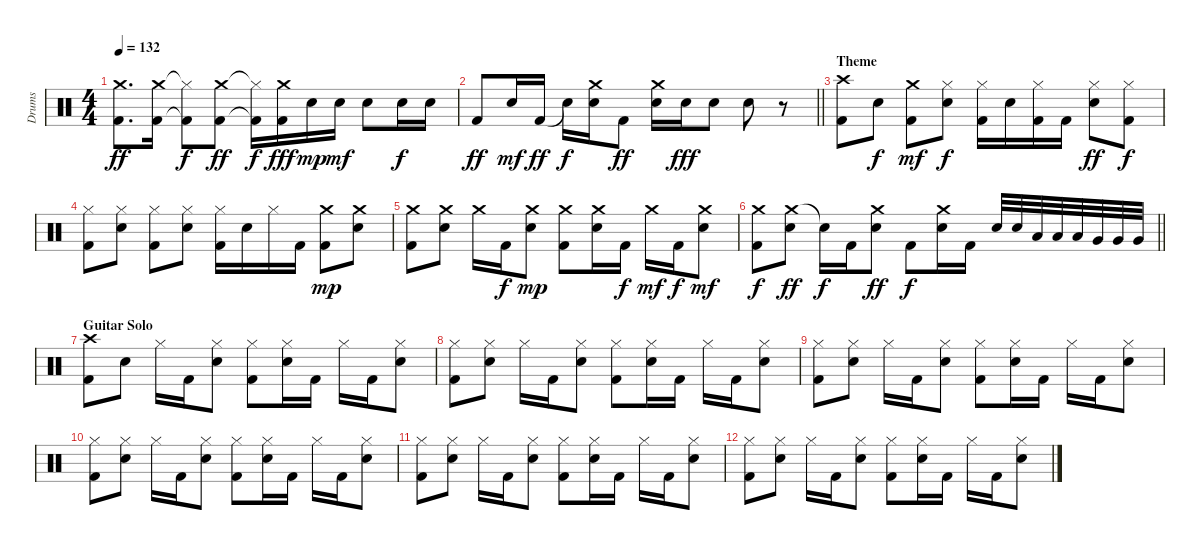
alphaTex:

\track ("Drums" "Drums") {instrument percussion}
\staff {score}
\articulation defaults
\ts (4 4)
\tempo 132
\clef neutral
\ks c
("Crash medium (hit)" "Kick (hit) 2").8{d dy ff} ("Crash medium (hit)" "Kick (hit) 2").16 ("Hi-Hat (closed)"{t} "Kick (hit) 2"{t}).8{dy f} ("Crash medium (hit)" "Kick (hit) 2").8{dy ff} ("Hi-Hat (closed)"{t} "Kick (hit) 2"{t}).16{dy f} ("Crash medium (hit)" "Kick (hit) 2").16{dy fff} "Electric Snare (hit)".16{dy mp} "Electric Snare (hit)".16{dy mf} "Electric Snare (hit)".8 "Electric Snare (hit)".16{dy f} "Electric Snare (hit)".16 |
\barLineRight lightlight "Kick (hit) 2".8{dy ff} "Electric Snare (hit)".16{dy mf} "Kick (hit) 2".16{dy ff} "Snare (hit)"{t}.16{dy f}
("Crash medium (hit)" "Electric Snare (hit)").16 "Kick (hit) 2".8{dy ff} ("Crash medium (hit)" "Electric Snare (hit)").16 "Electric Snare (hit)".16{dy fff} "Electric Snare (hit)".8 "Electric Snare (hit)".8 r.8 |
\section ("" "Theme")
("Crash high (hit)" "Kick (hit) 2").8 "Electric Snare (hit)".8{dy f} ("Crash medium (hit)" "Kick (hit) 2").8{dy mf} ("Hi-Hat (closed)" "Electric Snare (hit)").8{dy f} ("Hi-Hat (closed)" "Kick (hit) 2").16 "Electric Snare (hit)".16 ("Hi-Hat (closed)" "Kick (hit) 2").16 "Kick (hit) 2".16 ("Hi-Hat (closed)" "Electric Snare (hit)").8{dy ff} ("Hi-Hat (closed)" "Kick (hit) 2").8{dy f} |
("Hi-Hat (closed)" "Kick (hit) 2").8 ("Hi-Hat (closed)" "Electric Snare (hit)").8 ("Hi-Hat (closed)" "Kick (hit) 2").8 ("Hi-Hat (closed)" "Electric Snare (hit)").8 ("Hi-Hat (closed)" "Kick (hit) 2").16 "Electric Snare (hit)".16 "Hi-Hat (closed)".16 "Kick (hit) 2".16 ("Crash medium (hit)" "Kick (hit) 2").8{dy mp} ("Crash medium (hit)" "Electric Snare (hit)").8 |
("Crash medium (hit)" "Kick (hit) 2").8 ("Crash medium (hit)" "Electric Snare (hit)").8 "Crash medium (hit)".16 "Kick (hit) 2".16{dy f} ("Crash medium (hit)" "Electric Snare (hit)").8{dy mp} ("Crash medium (hit)" "Kick (hit) 2").8 ("Crash medium (hit)" "Electric Snare (hit)").16 "Kick (hit) 2".16{dy f} "Crash medium (hit)".16{dy mf} "Kick (hit) 2".16{dy f} ("Crash medium (hit)" "Electric Snare (hit)").8{dy mf} |
\barLineRight lightlight
("Crash medium (hit)" "Kick (hit) 2").8{dy f} ("Crash medium (hit)" "Electric Snare (hit)").8{dy ff} "Snare (hit)"{t}.16{dy f} "Kick (hit) 2".16 ("Crash medium (hit)" "Electric Snare (hit)").8{dy ff} "Kick (hit) 2".8{dy f} ("Crash medium (hit)" "Electric Snare (hit)").16 "Kick (hit) 2".16 "Electric Snare (hit)".32 "Electric Snare (hit)".32 "Low Tom (hit)".32 "Low Tom (hit)".32 "Low Tom (hit)".32 "Very Low Tom (hit)".32 "Very Low Tom (hit)".32 "Very Low Tom (hit)".32 |
\section ("" "Guitar Solo")
("Crash high (hit)" "Kick (hit) 2").8 "Electric Snare (hit)".8 "Hi-Hat (closed)".16 "Kick (hit) 2".16 ("Hi-Hat (closed)" "Electric Snare (hit)").8 ("Hi-Hat (closed)" "Kick (hit) 2").8 ("Hi-Hat (closed)" "Electric Snare (hit)").16 "Kick (hit) 2".16 "Hi-Hat (closed)".16 "Kick (hit) 2".16 ("Hi-Hat (closed)" "Electric Snare (hit)").8 |
("Hi-Hat (closed)" "Kick (hit) 2").8 ("Hi-Hat (closed)" "Electric Snare (hit)").8 "Hi-Hat (closed)".16 "Kick (hit) 2".16 ("Hi-Hat (closed)" "Electric Snare (hit)").8 ("Hi-Hat (closed)" "Kick (hit) 2").8 ("Hi-Hat (closed)" "Electric Snare (hit)").16 "Kick (hit) 2".16 "Hi-Hat (closed)".16 "Kick (hit) 2".16 ("Hi-Hat (closed)" "Electric Snare (hit)").8 |
("Hi-Hat (closed)" "Kick (hit) 2").8 ("Hi-Hat (closed)" "Electric Snare (hit)").8 "Hi-Hat (closed)".16 "Kick (hit) 2".16 ("Hi-Hat (closed)" "Electric Snare (hit)").8 ("Hi-Hat (closed)" "Kick (hit) 2").8 ("Hi-Hat (closed)" "Electric Snare (hit)").16 "Kick (hit) 2".16 "Hi-Hat (closed)".16 "Kick (hit) 2".16 ("Hi-Hat (closed)" "Electric Snare (hit)").8 |
("Hi-Hat (closed)" "Kick (hit) 2").8 ("Hi-Hat (closed)" "Electric Snare (hit)").8 "Hi-Hat (closed)".16 "Kick (hit) 2".16 ("Hi-Hat (closed)" "Electric Snare (hit)").8 ("Hi-Hat (closed)" "Kick (hit) 2").8 ("Hi-Hat (closed)" "Electric Snare (hit)").16 "Kick (hit) 2".16 "Hi-Hat (closed)".16 "Kick (hit) 2".16 ("Hi-Hat (closed)" "Electric Snare (hit)").8 |
("Hi-Hat (closed)" "Kick (hit) 2").8 ("Hi-Hat (closed)" "Electric Snare (hit)").8 "Hi-Hat (closed)".16 "Kick (hit) 2".16 ("Hi-Hat (closed)" "Electric Snare (hit)").8 ("Hi-Hat (closed)" "Kick (hit) 2").8 ("Hi-Hat (closed)" "Electric Snare (hit)").16 "Kick (hit) 2".16 "Hi-Hat (closed)".16 "Kick (hit) 2".16 ("Hi-Hat (closed)" "Electric Snare (hit)").8 |
("Hi-Hat (closed)" "Kick (hit) 2").8 ("Hi-Hat (closed)" "Electric Snare (hit)").8 "Hi-Hat (closed)".16 "Kick (hit) 2".16 ("Hi-Hat (closed)" "Electric Snare (hit)").8 ("Hi-Hat (closed)" "Kick (hit) 2").8 ("Hi-Hat (closed)" "Electric Snare (hit)").16 "Kick (hit) 2".16 "Hi-Hat (closed)".16 "Kick (hit) 2".16 ("Hi-Hat (closed)" "Electric Snare (hit)").8
